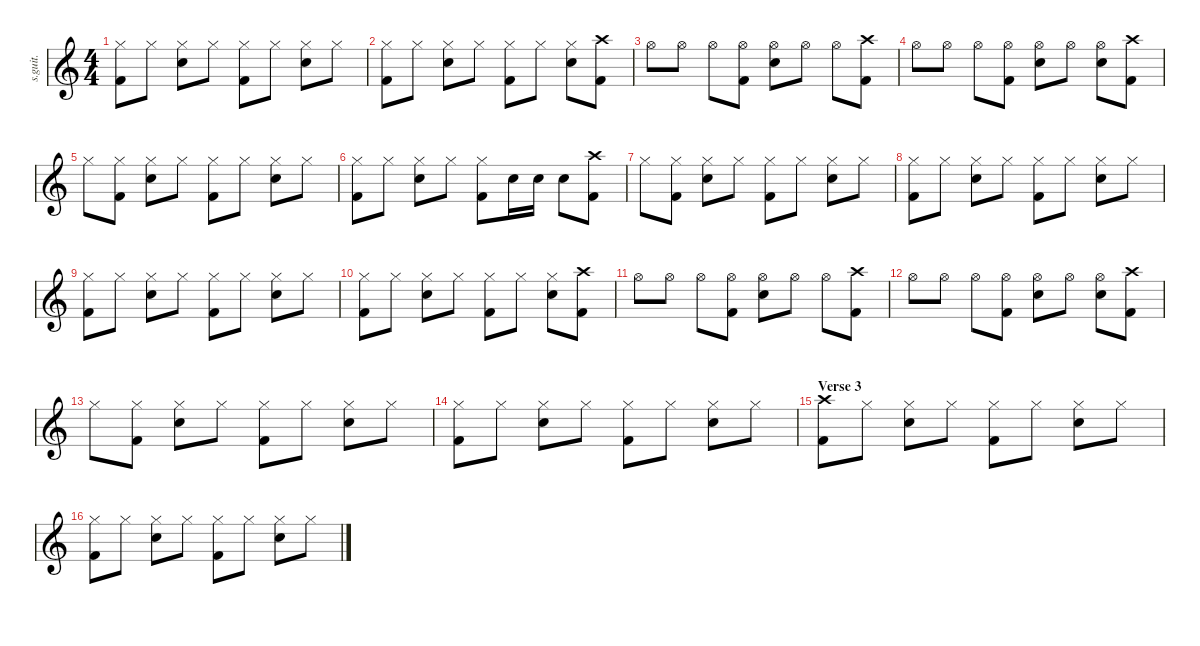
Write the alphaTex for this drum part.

\defaultSystemsLayout 4
\hideDynamics
\bracketExtendMode nobrackets
\track ("Nick Menza" "s.guit.") {instrument percussion}
\staff {score}
\articulation defaults
\ts (4 4)
\tempo (140 hide)
\clef g2
\ks c
("Hi-Hat (closed)" "Kick (hit) 2").8{lyrics (0 "") lyrics (1 "") lyrics (2 "") lyrics (3 "") lyrics (4 "") dy f} "Hi-Hat (closed)".8{lyrics (0 "") lyrics (1 "") lyrics (2 "") lyrics (3 "") lyrics (4 "")} ("Hi-Hat (closed)" "Snare (hit) 2").8{lyrics (0 "") lyrics (1 "") lyrics (2 "") lyrics (3 "") lyrics (4 "")} "Hi-Hat (closed)".8{lyrics (0 "") lyrics (1 "") lyrics (2 "") lyrics (3 "") lyrics (4 "")} ("Hi-Hat (closed)" "Kick (hit) 2").8{lyrics (0 "") lyrics (1 "") lyrics (2 "") lyrics (3 "") lyrics (4 "")} "Hi-Hat (closed)".8{lyrics (0 "") lyrics (1 "") lyrics (2 "") lyrics (3 "") lyrics (4 "")} ("Hi-Hat (closed)" "Snare (hit) 2").8{lyrics (0 "") lyrics (1 "") lyrics (2 "") lyrics (3 "") lyrics (4 "")} "Hi-Hat (closed)".8{lyrics (0 "") lyrics (1 "") lyrics (2 "") lyrics (3 "") lyrics (4 "")} |
("Hi-Hat (closed)" "Kick (hit) 2").8{lyrics (0 "") lyrics (1 "") lyrics (2 "") lyrics (3 "") lyrics (4 "")} "Hi-Hat (closed)".8{lyrics (0 "") lyrics (1 "") lyrics (2 "") lyrics (3 "") lyrics (4 "")} ("Hi-Hat (closed)" "Snare (hit) 2").8{lyrics (0 "") lyrics (1 "") lyrics (2 "") lyrics (3 "") lyrics (4 "")} "Hi-Hat (closed)".8{lyrics (0 "") lyrics (1 "") lyrics (2 "") lyrics (3 "") lyrics (4 "")} ("Hi-Hat (closed)" "Kick (hit) 2").8{lyrics (0 "") lyrics (1 "") lyrics (2 "") lyrics (3 "") lyrics (4 "")} "Hi-Hat (closed)".8{lyrics (0 "") lyrics (1 "") lyrics (2 "") lyrics (3 "") lyrics (4 "")} ("Hi-Hat (closed)" "Snare (hit) 2").8{lyrics (0 "") lyrics (1 "") lyrics (2 "") lyrics (3 "") lyrics (4 "")} ("Crash high (hit)" "Kick (hit) 2").8{lyrics (0 "") lyrics (1 "") lyrics (2 "") lyrics (3 "") lyrics (4 "")} |
"Hi-Hat (open)".8{lyrics (0 "") lyrics (1 "") lyrics (2 "") lyrics (3 "") lyrics (4 "")} "Hi-Hat (open)".8{lyrics (0 "") lyrics (1 "") lyrics (2 "") lyrics (3 "") lyrics (4 "")} "Hi-Hat (open)".8{lyrics (0 "") lyrics (1 "") lyrics (2 "") lyrics (3 "") lyrics (4 "")} ("Hi-Hat (open)" "Kick (hit) 2").8{lyrics (0 "") lyrics (1 "") lyrics (2 "") lyrics (3 "") lyrics (4 "")} ("Hi-Hat (open)" "Snare (hit) 2").8{lyrics (0 "") lyrics (1 "") lyrics (2 "") lyrics (3 "") lyrics (4 "")} "Hi-Hat (open)".8{lyrics (0 "") lyrics (1 "") lyrics (2 "") lyrics (3 "") lyrics (4 "")} "Hi-Hat (open)".8{lyrics (0 "") lyrics (1 "") lyrics (2 "") lyrics (3 "") lyrics (4 "")} ("Crash high (hit)" "Kick (hit) 2").8{lyrics (0 "") lyrics (1 "") lyrics (2 "") lyrics (3 "") lyrics (4 "")} |
"Hi-Hat (open)".8{lyrics (0 "") lyrics (1 "") lyrics (2 "") lyrics (3 "") lyrics (4 "")} "Hi-Hat (open)".8{lyrics (0 "") lyrics (1 "") lyrics (2 "") lyrics (3 "") lyrics (4 "")} "Hi-Hat (open)".8{lyrics (0 "") lyrics (1 "") lyrics (2 "") lyrics (3 "") lyrics (4 "")} ("Hi-Hat (open)" "Kick (hit) 2").8{lyrics (0 "") lyrics (1 "") lyrics (2 "") lyrics (3 "") lyrics (4 "")} ("Hi-Hat (open)" "Snare (hit) 2").8{lyrics (0 "") lyrics (1 "") lyrics (2 "") lyrics (3 "") lyrics (4 "")} "Hi-Hat (open)".8{lyrics (0 "") lyrics (1 "") lyrics (2 "") lyrics (3 "") lyrics (4 "")} ("Hi-Hat (open)" "Snare (hit) 2").8{lyrics (0 "") lyrics (1 "") lyrics (2 "") lyrics (3 "") lyrics (4 "")} ("Crash high (hit)" "Kick (hit) 2").8{lyrics (0 "") lyrics (1 "") lyrics (2 "") lyrics (3 "") lyrics (4 "")} |
"Hi-Hat (closed)".8{lyrics (0 "") lyrics (1 "") lyrics (2 "") lyrics (3 "") lyrics (4 "")} ("Hi-Hat (closed)" "Kick (hit) 2").8{lyrics (0 "") lyrics (1 "") lyrics (2 "") lyrics (3 "") lyrics (4 "")} ("Hi-Hat (closed)" "Snare (hit) 2").8{lyrics (0 "") lyrics (1 "") lyrics (2 "") lyrics (3 "") lyrics (4 "")} "Hi-Hat (closed)".8{lyrics (0 "") lyrics (1 "") lyrics (2 "") lyrics (3 "") lyrics (4 "")} ("Hi-Hat (closed)" "Kick (hit) 2").8{lyrics (0 "") lyrics (1 "") lyrics (2 "") lyrics (3 "") lyrics (4 "")} "Hi-Hat (closed)".8{lyrics (0 "") lyrics (1 "") lyrics (2 "") lyrics (3 "") lyrics (4 "")} ("Hi-Hat (closed)" "Snare (hit) 2").8{lyrics (0 "") lyrics (1 "") lyrics (2 "") lyrics (3 "") lyrics (4 "")} "Hi-Hat (closed)".8{lyrics (0 "") lyrics (1 "") lyrics (2 "") lyrics (3 "") lyrics (4 "")} |
("Hi-Hat (closed)" "Kick (hit) 2").8{lyrics (0 "") lyrics (1 "") lyrics (2 "") lyrics (3 "") lyrics (4 "")} "Hi-Hat (closed)".8{lyrics (0 "") lyrics (1 "") lyrics (2 "") lyrics (3 "") lyrics (4 "")} ("Hi-Hat (closed)" "Snare (hit) 2").8{lyrics (0 "") lyrics (1 "") lyrics (2 "") lyrics (3 "") lyrics (4 "")} "Hi-Hat (closed)".8{lyrics (0 "") lyrics (1 "") lyrics (2 "") lyrics (3 "") lyrics (4 "")} ("Hi-Hat (closed)" "Kick (hit) 2").8{lyrics (0 "") lyrics (1 "") lyrics (2 "") lyrics (3 "") lyrics (4 "")} "Snare (hit) 2".16{lyrics (0 "") lyrics (1 "") lyrics (2 "") lyrics (3 "") lyrics (4 "") dy mp} "Snare (hit) 2".16{lyrics (0 "") lyrics (1 "") lyrics (2 "") lyrics (3 "") lyrics (4 "")} "Snare (hit) 2".8{lyrics (0 "") lyrics (1 "") lyrics (2 "") lyrics (3 "") lyrics (4 "") dy f} ("Crash high (hit)" "Kick (hit) 2").8{lyrics (0 "") lyrics (1 "") lyrics (2 "") lyrics (3 "") lyrics (4 "")} |
"Hi-Hat (closed)".8{lyrics (0 "") lyrics (1 "") lyrics (2 "") lyrics (3 "") lyrics (4 "")} ("Hi-Hat (closed)" "Kick (hit) 2").8{lyrics (0 "") lyrics (1 "") lyrics (2 "") lyrics (3 "") lyrics (4 "")} ("Hi-Hat (closed)" "Snare (hit) 2").8{lyrics (0 "") lyrics (1 "") lyrics (2 "") lyrics (3 "") lyrics (4 "")} "Hi-Hat (closed)".8{lyrics (0 "") lyrics (1 "") lyrics (2 "") lyrics (3 "") lyrics (4 "")} ("Hi-Hat (closed)" "Kick (hit) 2").8{lyrics (0 "") lyrics (1 "") lyrics (2 "") lyrics (3 "") lyrics (4 "")} "Hi-Hat (closed)".8{lyrics (0 "") lyrics (1 "") lyrics (2 "") lyrics (3 "") lyrics (4 "")} ("Hi-Hat (closed)" "Snare (hit) 2").8{lyrics (0 "") lyrics (1 "") lyrics (2 "") lyrics (3 "") lyrics (4 "")} "Hi-Hat (closed)".8{lyrics (0 "") lyrics (1 "") lyrics (2 "") lyrics (3 "") lyrics (4 "")} |
("Hi-Hat (closed)" "Kick (hit) 2").8{lyrics (0 "") lyrics (1 "") lyrics (2 "") lyrics (3 "") lyrics (4 "")} "Hi-Hat (closed)".8{lyrics (0 "") lyrics (1 "") lyrics (2 "") lyrics (3 "") lyrics (4 "")} ("Hi-Hat (closed)" "Snare (hit) 2").8{lyrics (0 "") lyrics (1 "") lyrics (2 "") lyrics (3 "") lyrics (4 "")} "Hi-Hat (closed)".8{lyrics (0 "") lyrics (1 "") lyrics (2 "") lyrics (3 "") lyrics (4 "")} ("Hi-Hat (closed)" "Kick (hit) 2").8{lyrics (0 "") lyrics (1 "") lyrics (2 "") lyrics (3 "") lyrics (4 "")} "Hi-Hat (closed)".8{lyrics (0 "") lyrics (1 "") lyrics (2 "") lyrics (3 "") lyrics (4 "")} ("Hi-Hat (closed)" "Snare (hit) 2").8{lyrics (0 "") lyrics (1 "") lyrics (2 "") lyrics (3 "") lyrics (4 "")} "Hi-Hat (closed)".8{lyrics (0 "") lyrics (1 "") lyrics (2 "") lyrics (3 "") lyrics (4 "")} |
("Hi-Hat (closed)" "Kick (hit) 2").8{lyrics (0 "") lyrics (1 "") lyrics (2 "") lyrics (3 "") lyrics (4 "")} "Hi-Hat (closed)".8{lyrics (0 "") lyrics (1 "") lyrics (2 "") lyrics (3 "") lyrics (4 "")} ("Hi-Hat (closed)" "Snare (hit) 2").8{lyrics (0 "") lyrics (1 "") lyrics (2 "") lyrics (3 "") lyrics (4 "")} "Hi-Hat (closed)".8{lyrics (0 "") lyrics (1 "") lyrics (2 "") lyrics (3 "") lyrics (4 "")} ("Hi-Hat (closed)" "Kick (hit) 2").8{lyrics (0 "") lyrics (1 "") lyrics (2 "") lyrics (3 "") lyrics (4 "")} "Hi-Hat (closed)".8{lyrics (0 "") lyrics (1 "") lyrics (2 "") lyrics (3 "") lyrics (4 "")} ("Hi-Hat (closed)" "Snare (hit) 2").8{lyrics (0 "") lyrics (1 "") lyrics (2 "") lyrics (3 "") lyrics (4 "")} "Hi-Hat (closed)".8{lyrics (0 "") lyrics (1 "") lyrics (2 "") lyrics (3 "") lyrics (4 "")} |
("Hi-Hat (closed)" "Kick (hit) 2").8{lyrics (0 "") lyrics (1 "") lyrics (2 "") lyrics (3 "") lyrics (4 "")} "Hi-Hat (closed)".8{lyrics (0 "") lyrics (1 "") lyrics (2 "") lyrics (3 "") lyrics (4 "")} ("Hi-Hat (closed)" "Snare (hit) 2").8{lyrics (0 "") lyrics (1 "") lyrics (2 "") lyrics (3 "") lyrics (4 "")} "Hi-Hat (closed)".8{lyrics (0 "") lyrics (1 "") lyrics (2 "") lyrics (3 "") lyrics (4 "")} ("Hi-Hat (closed)" "Kick (hit) 2").8{lyrics (0 "") lyrics (1 "") lyrics (2 "") lyrics (3 "") lyrics (4 "")} "Hi-Hat (closed)".8{lyrics (0 "") lyrics (1 "") lyrics (2 "") lyrics (3 "") lyrics (4 "")} ("Hi-Hat (closed)" "Snare (hit) 2").8{lyrics (0 "") lyrics (1 "") lyrics (2 "") lyrics (3 "") lyrics (4 "")} ("Crash high (hit)" "Kick (hit) 2").8{lyrics (0 "") lyrics (1 "") lyrics (2 "") lyrics (3 "") lyrics (4 "")} |
"Hi-Hat (open)".8{lyrics (0 "") lyrics (1 "") lyrics (2 "") lyrics (3 "") lyrics (4 "")} "Hi-Hat (open)".8{lyrics (0 "") lyrics (1 "") lyrics (2 "") lyrics (3 "") lyrics (4 "")} "Hi-Hat (open)".8{lyrics (0 "") lyrics (1 "") lyrics (2 "") lyrics (3 "") lyrics (4 "")} ("Hi-Hat (open)" "Kick (hit) 2").8{lyrics (0 "") lyrics (1 "") lyrics (2 "") lyrics (3 "") lyrics (4 "")} ("Hi-Hat (open)" "Snare (hit) 2").8{lyrics (0 "") lyrics (1 "") lyrics (2 "") lyrics (3 "") lyrics (4 "")} "Hi-Hat (open)".8{lyrics (0 "") lyrics (1 "") lyrics (2 "") lyrics (3 "") lyrics (4 "")} "Hi-Hat (open)".8{lyrics (0 "") lyrics (1 "") lyrics (2 "") lyrics (3 "") lyrics (4 "")} ("Crash high (hit)" "Kick (hit) 2").8{lyrics (0 "") lyrics (1 "") lyrics (2 "") lyrics (3 "") lyrics (4 "")} |
"Hi-Hat (open)".8{lyrics (0 "") lyrics (1 "") lyrics (2 "") lyrics (3 "") lyrics (4 "")} "Hi-Hat (open)".8{lyrics (0 "") lyrics (1 "") lyrics (2 "") lyrics (3 "") lyrics (4 "")} "Hi-Hat (open)".8{lyrics (0 "") lyrics (1 "") lyrics (2 "") lyrics (3 "") lyrics (4 "")} ("Hi-Hat (open)" "Kick (hit) 2").8{lyrics (0 "") lyrics (1 "") lyrics (2 "") lyrics (3 "") lyrics (4 "")} ("Hi-Hat (open)" "Snare (hit) 2").8{lyrics (0 "") lyrics (1 "") lyrics (2 "") lyrics (3 "") lyrics (4 "")} "Hi-Hat (open)".8{lyrics (0 "") lyrics (1 "") lyrics (2 "") lyrics (3 "") lyrics (4 "")} ("Hi-Hat (open)" "Snare (hit) 2").8{lyrics (0 "") lyrics (1 "") lyrics (2 "") lyrics (3 "") lyrics (4 "")} ("Crash high (hit)" "Kick (hit) 2").8{lyrics (0 "") lyrics (1 "") lyrics (2 "") lyrics (3 "") lyrics (4 "")} |
"Hi-Hat (closed)".8{lyrics (0 "") lyrics (1 "") lyrics (2 "") lyrics (3 "") lyrics (4 "")} ("Hi-Hat (closed)" "Kick (hit) 2").8{lyrics (0 "") lyrics (1 "") lyrics (2 "") lyrics (3 "") lyrics (4 "")} ("Hi-Hat (closed)" "Snare (hit) 2").8{lyrics (0 "") lyrics (1 "") lyrics (2 "") lyrics (3 "") lyrics (4 "")} "Hi-Hat (closed)".8{lyrics (0 "") lyrics (1 "") lyrics (2 "") lyrics (3 "") lyrics (4 "")} ("Hi-Hat (closed)" "Kick (hit) 2").8{lyrics (0 "") lyrics (1 "") lyrics (2 "") lyrics (3 "") lyrics (4 "")} "Hi-Hat (closed)".8{lyrics (0 "") lyrics (1 "") lyrics (2 "") lyrics (3 "") lyrics (4 "")} ("Hi-Hat (closed)" "Snare (hit) 2").8{lyrics (0 "") lyrics (1 "") lyrics (2 "") lyrics (3 "") lyrics (4 "")} "Hi-Hat (closed)".8{lyrics (0 "") lyrics (1 "") lyrics (2 "") lyrics (3 "") lyrics (4 "")} |
("Hi-Hat (closed)" "Kick (hit) 2").8{lyrics (0 "") lyrics (1 "") lyrics (2 "") lyrics (3 "") lyrics (4 "")} "Hi-Hat (closed)".8{lyrics (0 "") lyrics (1 "") lyrics (2 "") lyrics (3 "") lyrics (4 "")} ("Hi-Hat (closed)" "Snare (hit) 2").8{lyrics (0 "") lyrics (1 "") lyrics (2 "") lyrics (3 "") lyrics (4 "")} "Hi-Hat (closed)".8{lyrics (0 "") lyrics (1 "") lyrics (2 "") lyrics (3 "") lyrics (4 "")} ("Hi-Hat (closed)" "Kick (hit) 2").8{lyrics (0 "") lyrics (1 "") lyrics (2 "") lyrics (3 "") lyrics (4 "")} "Hi-Hat (closed)".8{lyrics (0 "") lyrics (1 "") lyrics (2 "") lyrics (3 "") lyrics (4 "")} ("Hi-Hat (closed)" "Snare (hit) 2").8{lyrics (0 "") lyrics (1 "") lyrics (2 "") lyrics (3 "") lyrics (4 "")} "Hi-Hat (closed)".8{lyrics (0 "") lyrics (1 "") lyrics (2 "") lyrics (3 "") lyrics (4 "")} |
\section ("" "Verse 3")
("Crash high (hit)" "Kick (hit) 2").8{lyrics (0 "") lyrics (1 "") lyrics (2 "") lyrics (3 "") lyrics (4 "")} "Hi-Hat (closed)".8{lyrics (0 "") lyrics (1 "") lyrics (2 "") lyrics (3 "") lyrics (4 "")} ("Hi-Hat (closed)" "Snare (hit) 2").8{lyrics (0 "") lyrics (1 "") lyrics (2 "") lyrics (3 "") lyrics (4 "")} "Hi-Hat (closed)".8{lyrics (0 "") lyrics (1 "") lyrics (2 "") lyrics (3 "") lyrics (4 "")} ("Hi-Hat (closed)" "Kick (hit) 2").8{lyrics (0 "") lyrics (1 "") lyrics (2 "") lyrics (3 "") lyrics (4 "")} "Hi-Hat (closed)".8{lyrics (0 "") lyrics (1 "") lyrics (2 "") lyrics (3 "") lyrics (4 "")} ("Hi-Hat (closed)" "Snare (hit) 2").8{lyrics (0 "") lyrics (1 "") lyrics (2 "") lyrics (3 "") lyrics (4 "")} "Hi-Hat (closed)".8{lyrics (0 "") lyrics (1 "") lyrics (2 "") lyrics (3 "") lyrics (4 "")} |
("Hi-Hat (closed)" "Kick (hit) 2").8{lyrics (0 "") lyrics (1 "") lyrics (2 "") lyrics (3 "") lyrics (4 "")} "Hi-Hat (closed)".8{lyrics (0 "") lyrics (1 "") lyrics (2 "") lyrics (3 "") lyrics (4 "")} ("Hi-Hat (closed)" "Snare (hit) 2").8{lyrics (0 "") lyrics (1 "") lyrics (2 "") lyrics (3 "") lyrics (4 "")} "Hi-Hat (closed)".8{lyrics (0 "") lyrics (1 "") lyrics (2 "") lyrics (3 "") lyrics (4 "")} ("Hi-Hat (closed)" "Kick (hit) 2").8{lyrics (0 "") lyrics (1 "") lyrics (2 "") lyrics (3 "") lyrics (4 "")} "Hi-Hat (closed)".8{lyrics (0 "") lyrics (1 "") lyrics (2 "") lyrics (3 "") lyrics (4 "")} ("Hi-Hat (closed)" "Snare (hit) 2").8{lyrics (0 "") lyrics (1 "") lyrics (2 "") lyrics (3 "") lyrics (4 "")} "Hi-Hat (closed)".8{lyrics (0 "") lyrics (1 "") lyrics (2 "") lyrics (3 "") lyrics (4 "")}
